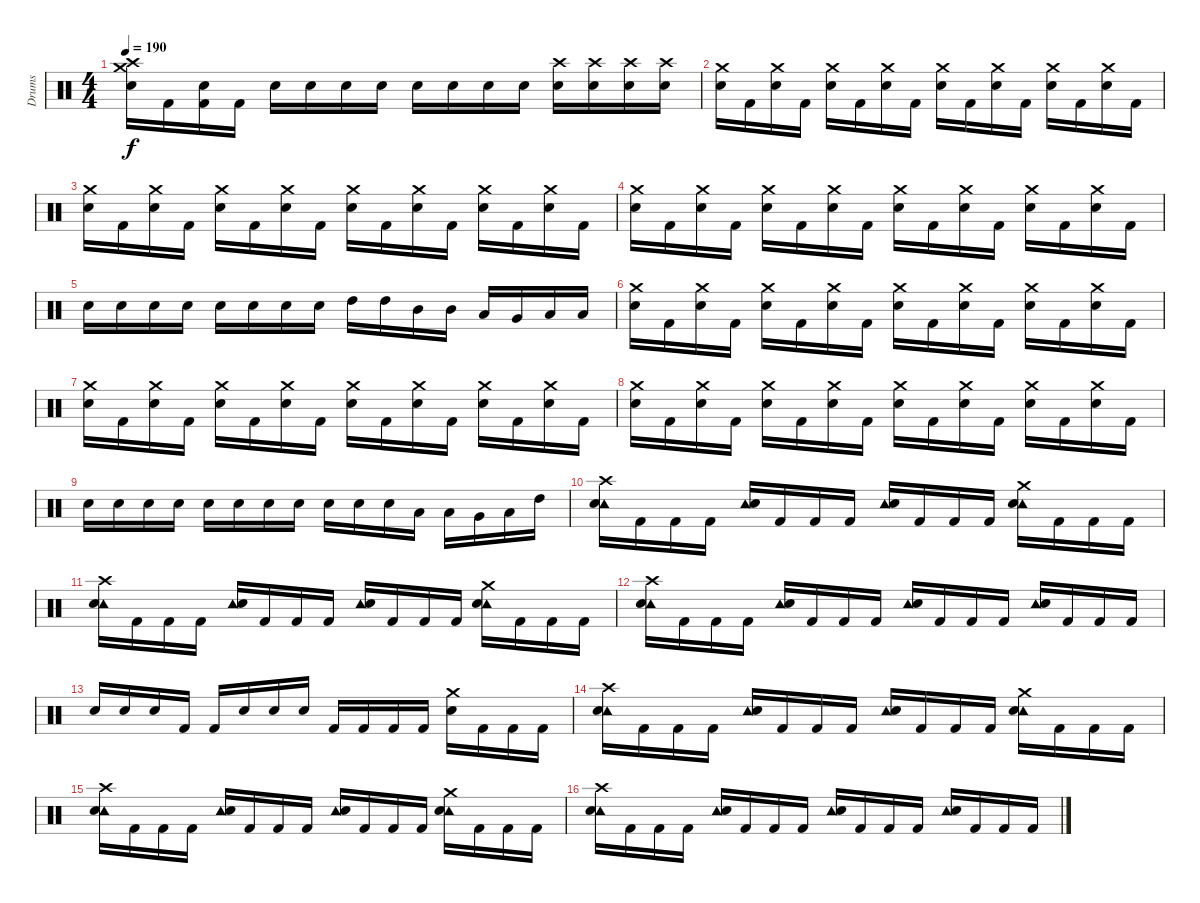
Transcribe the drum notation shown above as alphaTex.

\track ("Drums" "Drums") {instrument percussion}
\staff {score}
\articulation defaults
\ts (4 4)
\tempo 190
\clef neutral
\ks c
("Crash medium (hit)" "Crash high (hit)" "Electric Snare (hit)").16{dy f} "Kick (hit) 2".16 ("Kick (hit) 2" "Electric Snare (hit)").16 "Kick (hit) 2".16 "Electric Snare (hit)".16 "Electric Snare (hit)".16 "Electric Snare (hit)".16 "Electric Snare (hit)".16 "Electric Snare (hit)".16 "Electric Snare (hit)".16 "Electric Snare (hit)".16 "Electric Snare (hit)".16 ("Crash high (hit)" "Electric Snare (hit)").16 ("Crash high (hit)" "Electric Snare (hit)").16 ("Crash high (hit)" "Electric Snare (hit)").16 ("Crash high (hit)" "Electric Snare (hit)").16 |
("Crash medium (hit)" "Electric Snare (hit)").16 "Kick (hit) 2".16 ("Crash medium (hit)" "Electric Snare (hit)").16 "Kick (hit) 2".16 ("Crash medium (hit)" "Electric Snare (hit)").16 "Kick (hit) 2".16 ("Crash medium (hit)" "Electric Snare (hit)").16 "Kick (hit) 2".16 ("Crash medium (hit)" "Electric Snare (hit)").16 "Kick (hit) 2".16 ("Crash medium (hit)" "Electric Snare (hit)").16 "Kick (hit) 2".16 ("Crash medium (hit)" "Electric Snare (hit)").16 "Kick (hit) 2".16 ("Crash medium (hit)" "Electric Snare (hit)").16 "Kick (hit) 2".16 |
("Crash medium (hit)" "Electric Snare (hit)").16 "Kick (hit) 2".16 ("Crash medium (hit)" "Electric Snare (hit)").16 "Kick (hit) 2".16 ("Crash medium (hit)" "Electric Snare (hit)").16 "Kick (hit) 2".16 ("Crash medium (hit)" "Electric Snare (hit)").16 "Kick (hit) 2".16 ("Crash medium (hit)" "Electric Snare (hit)").16 "Kick (hit) 2".16 ("Crash medium (hit)" "Electric Snare (hit)").16 "Kick (hit) 2".16 ("Crash medium (hit)" "Electric Snare (hit)").16 "Kick (hit) 2".16 ("Crash medium (hit)" "Electric Snare (hit)").16 "Kick (hit) 2".16 |
("Crash medium (hit)" "Electric Snare (hit)").16 "Kick (hit) 2".16 ("Crash medium (hit)" "Electric Snare (hit)").16 "Kick (hit) 2".16 ("Crash medium (hit)" "Electric Snare (hit)").16 "Kick (hit) 2".16 ("Crash medium (hit)" "Electric Snare (hit)").16 "Kick (hit) 2".16 ("Crash medium (hit)" "Electric Snare (hit)").16 "Kick (hit) 2".16 ("Crash medium (hit)" "Electric Snare (hit)").16 "Kick (hit) 2".16 ("Crash medium (hit)" "Electric Snare (hit)").16 "Kick (hit) 2".16 ("Crash medium (hit)" "Electric Snare (hit)").16 "Kick (hit) 2".16 |
"Electric Snare (hit)".16 "Electric Snare (hit)".16 "Electric Snare (hit)".16 "Electric Snare (hit)".16 "Electric Snare (hit)".16 "Electric Snare (hit)".16 "Electric Snare (hit)".16 "Electric Snare (hit)".16 "High Tom (hit)".16 "High Tom (hit)".16 "Mid Tom (hit)".16 "Mid Tom (hit)".16 "Low Tom (hit)".16 "Very Low Tom (hit)".16 "Low Floor Tom (hit)".16 "Low Floor Tom (hit)".16 |
("Crash medium (hit)" "Electric Snare (hit)").16 "Kick (hit) 2".16 ("Crash medium (hit)" "Electric Snare (hit)").16 "Kick (hit) 2".16 ("Crash medium (hit)" "Electric Snare (hit)").16 "Kick (hit) 2".16 ("Crash medium (hit)" "Electric Snare (hit)").16 "Kick (hit) 2".16 ("Crash medium (hit)" "Electric Snare (hit)").16 "Kick (hit) 2".16 ("Crash medium (hit)" "Electric Snare (hit)").16 "Kick (hit) 2".16 ("Crash medium (hit)" "Electric Snare (hit)").16 "Kick (hit) 2".16 ("Crash medium (hit)" "Electric Snare (hit)").16 "Kick (hit) 2".16 |
("Crash medium (hit)" "Electric Snare (hit)").16 "Kick (hit) 2".16 ("Crash medium (hit)" "Electric Snare (hit)").16 "Kick (hit) 2".16 ("Crash medium (hit)" "Electric Snare (hit)").16 "Kick (hit) 2".16 ("Crash medium (hit)" "Electric Snare (hit)").16 "Kick (hit) 2".16 ("Crash medium (hit)" "Electric Snare (hit)").16 "Kick (hit) 2".16 ("Crash medium (hit)" "Electric Snare (hit)").16 "Kick (hit) 2".16 ("Crash medium (hit)" "Electric Snare (hit)").16 "Kick (hit) 2".16 ("Crash medium (hit)" "Electric Snare (hit)").16 "Kick (hit) 2".16 |
("Crash medium (hit)" "Electric Snare (hit)").16 "Kick (hit) 2".16 ("Crash medium (hit)" "Electric Snare (hit)").16 "Kick (hit) 2".16 ("Crash medium (hit)" "Electric Snare (hit)").16 "Kick (hit) 2".16 ("Crash medium (hit)" "Electric Snare (hit)").16 "Kick (hit) 2".16 ("Crash medium (hit)" "Electric Snare (hit)").16 "Kick (hit) 2".16 ("Crash medium (hit)" "Electric Snare (hit)").16 "Kick (hit) 2".16 ("Crash medium (hit)" "Electric Snare (hit)").16 "Kick (hit) 2".16 ("Crash medium (hit)" "Electric Snare (hit)").16 "Kick (hit) 2".16 |
"Electric Snare (hit)".16 "Electric Snare (hit)".16 "Electric Snare (hit)".16 "Electric Snare (hit)".16 "Electric Snare (hit)".16 "Electric Snare (hit)".16 "Electric Snare (hit)".16 "Electric Snare (hit)".16 "Electric Snare (hit)".16 "Electric Snare (hit)".16 "Electric Snare (hit)".16 "Low Floor Tom (hit)".16 "Low Floor Tom (hit)".16 "Very Low Tom (hit)".16 "Low Tom (hit)".16 "High Tom (hit)".16 |
("Crash high (hit)" "Tambourine (hit)" "Electric Snare (hit)").16 "Kick (hit) 2".16 "Kick (hit) 2".16 "Kick (hit) 2".16 ("Tambourine (hit)" "Electric Snare (hit)").16 "Kick (hit) 2".16 "Kick (hit) 2".16 "Kick (hit) 2".16 ("Tambourine (hit)" "Electric Snare (hit)").16 "Kick (hit) 2".16 "Kick (hit) 2".16 "Kick (hit) 2".16 ("Crash medium (hit)" "Tambourine (hit)" "Electric Snare (hit)").16 "Kick (hit) 2".16 "Kick (hit) 2".16 "Kick (hit) 2".16 |
("Crash high (hit)" "Tambourine (hit)" "Electric Snare (hit)").16 "Kick (hit) 2".16 "Kick (hit) 2".16 "Kick (hit) 2".16 ("Tambourine (hit)" "Electric Snare (hit)").16 "Kick (hit) 2".16 "Kick (hit) 2".16 "Kick (hit) 2".16 ("Tambourine (hit)" "Electric Snare (hit)").16 "Kick (hit) 2".16 "Kick (hit) 2".16 "Kick (hit) 2".16 ("Crash medium (hit)" "Tambourine (hit)" "Electric Snare (hit)").16 "Kick (hit) 2".16 "Kick (hit) 2".16 "Kick (hit) 2".16 |
("Crash high (hit)" "Tambourine (hit)" "Electric Snare (hit)").16 "Kick (hit) 2".16 "Kick (hit) 2".16 "Kick (hit) 2".16 ("Tambourine (hit)" "Electric Snare (hit)").16 "Kick (hit) 2".16 "Kick (hit) 2".16 "Kick (hit) 2".16 ("Tambourine (hit)" "Electric Snare (hit)").16 "Kick (hit) 2".16 "Kick (hit) 2".16 "Kick (hit) 2".16 ("Tambourine (hit)" "Electric Snare (hit)").16 "Kick (hit) 2".16 "Kick (hit) 2".16 "Kick (hit) 2".16 |
"Electric Snare (hit)".16 "Electric Snare (hit)".16 "Electric Snare (hit)".16 "Kick (hit) 2".16 "Kick (hit) 2".16 "Electric Snare (hit)".16 "Electric Snare (hit)".16 "Electric Snare (hit)".16 "Kick (hit) 2".16 "Kick (hit) 2".16 "Kick (hit) 2".16 "Kick (hit) 2".16 ("Crash medium (hit)" "Electric Snare (hit)").16 "Kick (hit) 2".16 "Kick (hit) 2".16 "Kick (hit) 2".16 |
("Crash high (hit)" "Tambourine (hit)" "Electric Snare (hit)").16 "Kick (hit) 2".16 "Kick (hit) 2".16 "Kick (hit) 2".16 ("Tambourine (hit)" "Electric Snare (hit)").16 "Kick (hit) 2".16 "Kick (hit) 2".16 "Kick (hit) 2".16 ("Tambourine (hit)" "Electric Snare (hit)").16 "Kick (hit) 2".16 "Kick (hit) 2".16 "Kick (hit) 2".16 ("Crash medium (hit)" "Tambourine (hit)" "Electric Snare (hit)").16 "Kick (hit) 2".16 "Kick (hit) 2".16 "Kick (hit) 2".16 |
("Crash high (hit)" "Tambourine (hit)" "Electric Snare (hit)").16 "Kick (hit) 2".16 "Kick (hit) 2".16 "Kick (hit) 2".16 ("Tambourine (hit)" "Electric Snare (hit)").16 "Kick (hit) 2".16 "Kick (hit) 2".16 "Kick (hit) 2".16 ("Tambourine (hit)" "Electric Snare (hit)").16 "Kick (hit) 2".16 "Kick (hit) 2".16 "Kick (hit) 2".16 ("Crash medium (hit)" "Tambourine (hit)" "Electric Snare (hit)").16 "Kick (hit) 2".16 "Kick (hit) 2".16 "Kick (hit) 2".16 |
("Crash high (hit)" "Tambourine (hit)" "Electric Snare (hit)").16 "Kick (hit) 2".16 "Kick (hit) 2".16 "Kick (hit) 2".16 ("Tambourine (hit)" "Electric Snare (hit)").16 "Kick (hit) 2".16 "Kick (hit) 2".16 "Kick (hit) 2".16 ("Tambourine (hit)" "Electric Snare (hit)").16 "Kick (hit) 2".16 "Kick (hit) 2".16 "Kick (hit) 2".16 ("Tambourine (hit)" "Electric Snare (hit)").16 "Kick (hit) 2".16 "Kick (hit) 2".16 "Kick (hit) 2".16
